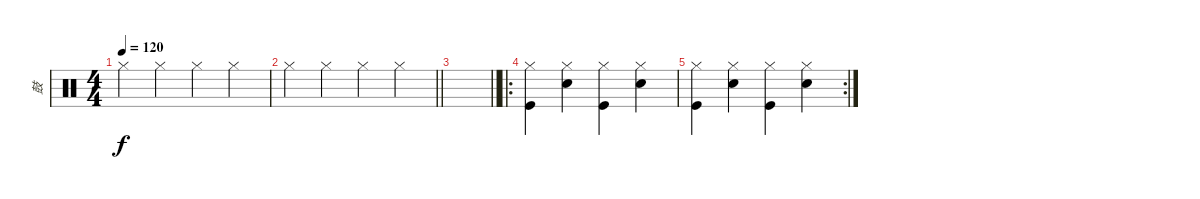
\track ("鼓" "鼓") {instrument percussion}
\staff {score}
\articulation defaults
\ts (4 4)
\tempo 120
\clef neutral
\ks c "Hi-Hat (closed)".4{dy f} "Hi-Hat (closed)".4 "Hi-Hat (closed)".4 "Hi-Hat (closed)".4
|
\barLineRight lightlight "Hi-Hat (closed)".4 "Hi-Hat (closed)".4 "Hi-Hat (closed)".4 "Hi-Hat (closed)".4
|
\barLineRight lightlight
|
\ro
("Kick (hit)" "Hi-Hat (closed)").4 ("Hi-Hat (closed)" "Snare (hit) 2").4 ("Kick (hit)" "Hi-Hat (closed)").4 ("Hi-Hat (closed)" "Snare (hit) 2").4 |
\rc 2
("Kick (hit)" "Hi-Hat (closed)").4 ("Hi-Hat (closed)" "Snare (hit) 2").4 ("Kick (hit)" "Hi-Hat (closed)").4 ("Hi-Hat (closed)" "Snare (hit) 2").4
